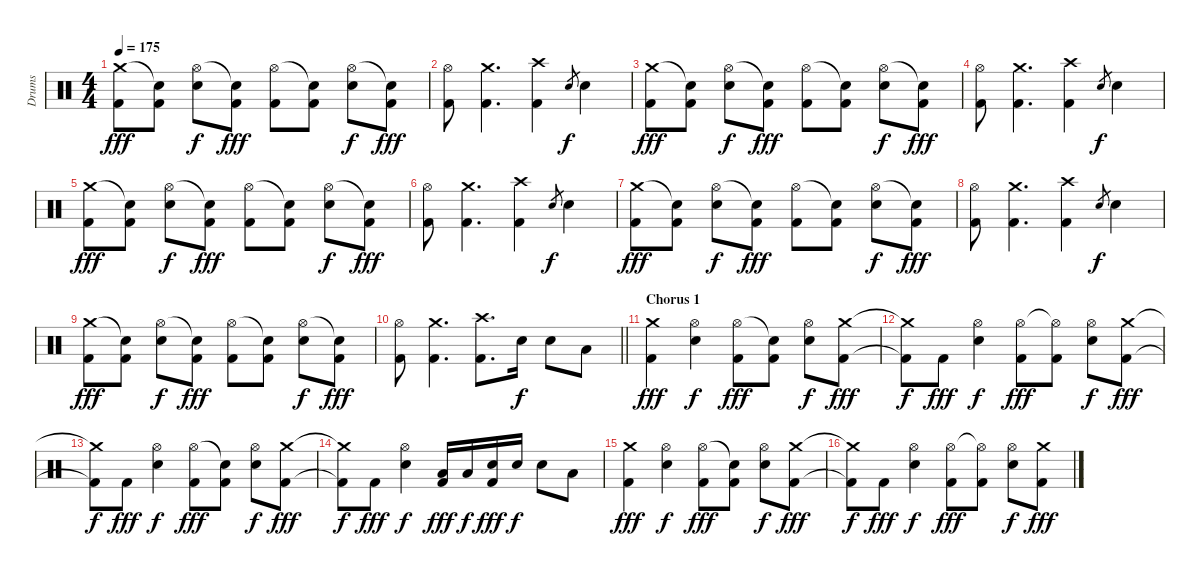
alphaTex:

\track ("Drums" "Drums") {instrument percussion}
\staff {score}
\articulation defaults
\ts (4 4)
\tempo 175
\clef neutral
\ks c
("Crash medium (hit)" "Kick (hit) 2").8{dy fff} ("Snare (hit)"{t} "Kick (hit) 2").8 ("Hi-Hat (open)" "Snare (hit) 2").8{dy f} ("Snare (hit)"{t} "Kick (hit) 2").8{dy fff} ("Hi-Hat (open)" "Kick (hit) 2").8 ("Snare (hit)"{t} "Kick (hit) 2").8 ("Hi-Hat (open)" "Snare (hit) 2").8{dy f} ("Snare (hit)"{t} "Kick (hit) 2").8{dy fff} |
("Hi-Hat (open)" "Kick (hit) 2").8 ("Crash medium (hit)" "Kick (hit) 2").4{d} ("Crash high (hit)" "Kick (hit) 2").4 "Snare (hit) 2".8{gr dy f} "Snare (hit) 2".4 |
("Crash medium (hit)" "Kick (hit) 2").8{dy fff} ("Snare (hit)"{t} "Kick (hit) 2").8 ("Hi-Hat (open)" "Snare (hit) 2").8{dy f} ("Snare (hit)"{t} "Kick (hit) 2").8{dy fff} ("Hi-Hat (open)" "Kick (hit) 2").8 ("Snare (hit)"{t} "Kick (hit) 2").8 ("Hi-Hat (open)" "Snare (hit) 2").8{dy f} ("Snare (hit)"{t} "Kick (hit) 2").8{dy fff} |
("Hi-Hat (open)" "Kick (hit) 2").8 ("Crash medium (hit)" "Kick (hit) 2").4{d} ("Crash high (hit)" "Kick (hit) 2").4 "Snare (hit) 2".8{gr dy f} "Snare (hit) 2".4 |
("Crash medium (hit)" "Kick (hit) 2").8{dy fff} ("Snare (hit)"{t} "Kick (hit) 2").8 ("Hi-Hat (open)" "Snare (hit) 2").8{dy f} ("Snare (hit)"{t} "Kick (hit) 2").8{dy fff} ("Hi-Hat (open)" "Kick (hit) 2").8 ("Snare (hit)"{t} "Kick (hit) 2").8 ("Hi-Hat (open)" "Snare (hit) 2").8{dy f} ("Snare (hit)"{t} "Kick (hit) 2").8{dy fff} |
("Hi-Hat (open)" "Kick (hit) 2").8 ("Crash medium (hit)" "Kick (hit) 2").4{d} ("Crash high (hit)" "Kick (hit) 2").4 "Snare (hit) 2".8{gr dy f} "Snare (hit) 2".4 |
("Crash medium (hit)" "Kick (hit) 2").8{dy fff} ("Snare (hit)"{t} "Kick (hit) 2").8 ("Hi-Hat (open)" "Snare (hit) 2").8{dy f} ("Snare (hit)"{t} "Kick (hit) 2").8{dy fff} ("Hi-Hat (open)" "Kick (hit) 2").8 ("Snare (hit)"{t} "Kick (hit) 2").8 ("Hi-Hat (open)" "Snare (hit) 2").8{dy f} ("Snare (hit)"{t} "Kick (hit) 2").8{dy fff} |
("Hi-Hat (open)" "Kick (hit) 2").8 ("Crash medium (hit)" "Kick (hit) 2").4{d} ("Crash high (hit)" "Kick (hit) 2").4 "Snare (hit) 2".8{gr dy f} "Snare (hit) 2".4 |
("Crash medium (hit)" "Kick (hit) 2").8{dy fff} ("Snare (hit)"{t} "Kick (hit) 2").8 ("Hi-Hat (open)" "Snare (hit) 2").8{dy f} ("Snare (hit)"{t} "Kick (hit) 2").8{dy fff} ("Hi-Hat (open)" "Kick (hit) 2").8 ("Snare (hit)"{t} "Kick (hit) 2").8 ("Hi-Hat (open)" "Snare (hit) 2").8{dy f} ("Snare (hit)"{t} "Kick (hit) 2").8{dy fff} |
\barLineRight lightlight
("Hi-Hat (open)" "Kick (hit) 2").8 ("Crash medium (hit)" "Kick (hit) 2").4{d} ("Crash high (hit)" "Kick (hit) 2").8{d} "Snare (hit) 2".16{dy f} "Snare (hit) 2".8 "Low Tom (hit)".8 |
\section ("" "Chorus 1")
("Crash medium (hit)" "Kick (hit) 2").4{dy fff} ("Hi-Hat (open)" "Snare (hit) 2").4{dy f} ("Hi-Hat (open)" "Kick (hit) 2").8{dy fff} ("Snare (hit)"{t} "Kick (hit) 2").8 ("Hi-Hat (open)" "Snare (hit) 2").8{dy f} ("Crash medium (hit)" "Kick (hit) 2").8{dy fff} |
("Crash medium (hit)"{t} "Kick (hit) 2"{t}).8{dy f} "Kick (hit) 2".8{dy fff} ("Hi-Hat (open)" "Snare (hit) 2").4{dy f} ("Hi-Hat (open)" "Kick (hit) 2").8{dy fff} ("Hi-Hat (open)"{t} "Kick (hit) 2").8 ("Hi-Hat (open)" "Snare (hit) 2").8{dy f} ("Crash medium (hit)" "Kick (hit) 2").8{dy fff} |
("Crash medium (hit)"{t} "Kick (hit) 2"{t}).8{dy f} "Kick (hit) 2".8{dy fff} ("Hi-Hat (open)" "Snare (hit) 2").4{dy f} ("Hi-Hat (open)" "Kick (hit) 2").8{dy fff} ("Snare (hit)"{t} "Kick (hit) 2").8 ("Hi-Hat (open)" "Snare (hit) 2").8{dy f} ("Crash medium (hit)" "Kick (hit) 2").8{dy fff} |
("Crash medium (hit)"{t} "Kick (hit) 2"{t}).8{dy f} "Kick (hit) 2".8{dy fff} ("Hi-Hat (open)" "Snare (hit) 2").4{dy f} ("Low Tom (hit)" "Kick (hit) 2").16{dy fff} "Low Tom (hit)".16{dy f} ("Snare (hit) 2" "Kick (hit) 2").16{dy fff} "Snare (hit) 2".16{dy f} "Snare (hit) 2".8 "Low Tom (hit)".8 |
("Crash medium (hit)" "Kick (hit) 2").4{dy fff} ("Hi-Hat (open)" "Snare (hit) 2").4{dy f} ("Hi-Hat (open)" "Kick (hit) 2").8{dy fff} ("Snare (hit)"{t} "Kick (hit) 2").8 ("Hi-Hat (open)" "Snare (hit) 2").8{dy f} ("Crash medium (hit)" "Kick (hit) 2").8{dy fff} |
("Crash medium (hit)"{t} "Kick (hit) 2"{t}).8{dy f} "Kick (hit) 2".8{dy fff} ("Hi-Hat (open)" "Snare (hit) 2").4{dy f} ("Hi-Hat (open)" "Kick (hit) 2").8{dy fff} ("Hi-Hat (open)"{t} "Kick (hit) 2").8 ("Hi-Hat (open)" "Snare (hit) 2").8{dy f} ("Crash medium (hit)" "Kick (hit) 2").8{dy fff}
